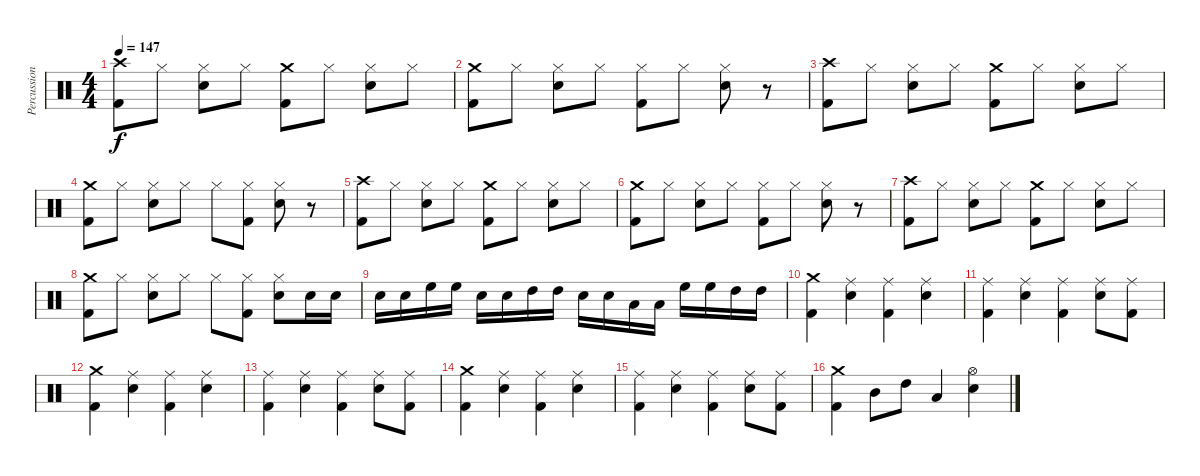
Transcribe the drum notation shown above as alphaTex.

\track ("Percussions" "Percussion") {instrument percussion}
\staff {score}
\articulation defaults
\ts (4 4)
\tempo 147
\clef neutral
\ks c
("Crash high (hit)" "Kick (hit) 2").8{dy f} "Hi-Hat (closed)".8 ("Hi-Hat (closed)" "Electric Snare (hit)").8 "Hi-Hat (closed)".8 ("Crash medium (hit)" "Kick (hit) 2").8 "Hi-Hat (closed)".8 ("Hi-Hat (closed)" "Electric Snare (hit)").8 "Hi-Hat (closed)".8 |
("Crash medium (hit)" "Kick (hit) 2").8 "Hi-Hat (closed)".8 ("Hi-Hat (closed)" "Electric Snare (hit)").8 "Hi-Hat (closed)".8 ("Hi-Hat (closed)" "Kick (hit) 2").8 "Hi-Hat (closed)".8 ("Hi-Hat (closed)" "Electric Snare (hit)").8 r.8 |
("Crash high (hit)" "Kick (hit) 2").8 "Hi-Hat (closed)".8 ("Hi-Hat (closed)" "Electric Snare (hit)").8 "Hi-Hat (closed)".8 ("Crash medium (hit)" "Kick (hit) 2").8 "Hi-Hat (closed)".8 ("Hi-Hat (closed)" "Electric Snare (hit)").8 "Hi-Hat (closed)".8 |
("Crash medium (hit)" "Kick (hit) 2").8 "Hi-Hat (closed)".8 ("Hi-Hat (closed)" "Electric Snare (hit)").8 "Hi-Hat (closed)".8 "Hi-Hat (closed)".8 ("Hi-Hat (closed)" "Kick (hit) 2").8 ("Hi-Hat (closed)" "Electric Snare (hit)").8 r.8 |
("Crash high (hit)" "Kick (hit) 2").8 "Hi-Hat (closed)".8 ("Hi-Hat (closed)" "Electric Snare (hit)").8 "Hi-Hat (closed)".8 ("Crash medium (hit)" "Kick (hit) 2").8 "Hi-Hat (closed)".8 ("Hi-Hat (closed)" "Electric Snare (hit)").8 "Hi-Hat (closed)".8 |
("Crash medium (hit)" "Kick (hit) 2").8 "Hi-Hat (closed)".8 ("Hi-Hat (closed)" "Electric Snare (hit)").8 "Hi-Hat (closed)".8 ("Hi-Hat (closed)" "Kick (hit) 2").8 "Hi-Hat (closed)".8 ("Hi-Hat (closed)" "Electric Snare (hit)").8 r.8 |
("Crash high (hit)" "Kick (hit) 2").8 "Hi-Hat (closed)".8 ("Hi-Hat (closed)" "Electric Snare (hit)").8 "Hi-Hat (closed)".8 ("Crash medium (hit)" "Kick (hit) 2").8 "Hi-Hat (closed)".8 ("Hi-Hat (closed)" "Electric Snare (hit)").8 "Hi-Hat (closed)".8 |
("Crash medium (hit)" "Kick (hit) 2").8 "Hi-Hat (closed)".8 ("Hi-Hat (closed)" "Electric Snare (hit)").8 "Hi-Hat (closed)".8 "Hi-Hat (closed)".8 ("Hi-Hat (closed)" "Kick (hit) 2").8 ("Hi-Hat (closed)" "Electric Snare (hit)").8 "Electric Snare (hit)".16 "Electric Snare (hit)".16 |
"Electric Snare (hit)".16 "Electric Snare (hit)".16 "High Floor Tom (hit)".16 "High Floor Tom (hit)".16 "Electric Snare (hit)".16 "Electric Snare (hit)".16 "High Tom (hit)".16 "High Tom (hit)".16 "Electric Snare (hit)".16 "Electric Snare (hit)".16 "Low Tom (hit)".16 "Low Tom (hit)".16 "High Floor Tom (hit)".16 "High Floor Tom (hit)".16 "High Tom (hit)".16 "High Tom (hit)".16 |
("Crash medium (hit)" "Kick (hit) 2").4 ("Ride (middle)" "Electric Snare (hit)").4 ("Ride (middle)" "Kick (hit) 2").4 ("Ride (middle)" "Electric Snare (hit)").4 |
("Ride (middle)" "Kick (hit) 2").4 ("Ride (middle)" "Electric Snare (hit)").4 ("Ride (middle)" "Kick (hit) 2").4 ("Ride (middle)" "Electric Snare (hit)").8 ("Ride (middle)" "Kick (hit) 2").8 |
("Crash medium (hit)" "Kick (hit) 2").4 ("Ride (middle)" "Electric Snare (hit)").4 ("Ride (middle)" "Kick (hit) 2").4 ("Ride (middle)" "Electric Snare (hit)").4 |
("Ride (middle)" "Kick (hit) 2").4 ("Ride (middle)" "Electric Snare (hit)").4 ("Ride (middle)" "Kick (hit) 2").4 ("Ride (middle)" "Electric Snare (hit)").8 ("Ride (middle)" "Kick (hit) 2").8 |
("Crash medium (hit)" "Kick (hit) 2").4 ("Ride (middle)" "Electric Snare (hit)").4 ("Ride (middle)" "Kick (hit) 2").4 ("Ride (middle)" "Electric Snare (hit)").4 |
("Ride (middle)" "Kick (hit) 2").4 ("Ride (middle)" "Electric Snare (hit)").4 ("Ride (middle)" "Kick (hit) 2").4 ("Ride (middle)" "Electric Snare (hit)").8 ("Ride (middle)" "Kick (hit) 2").8 |
("Crash medium (hit)" "Kick (hit) 2").4 "Mid Tom (hit)".8 "High Tom (hit)".8 "Low Tom (hit)".4 ("Hi-Hat (open)" "Electric Snare (hit)").4
